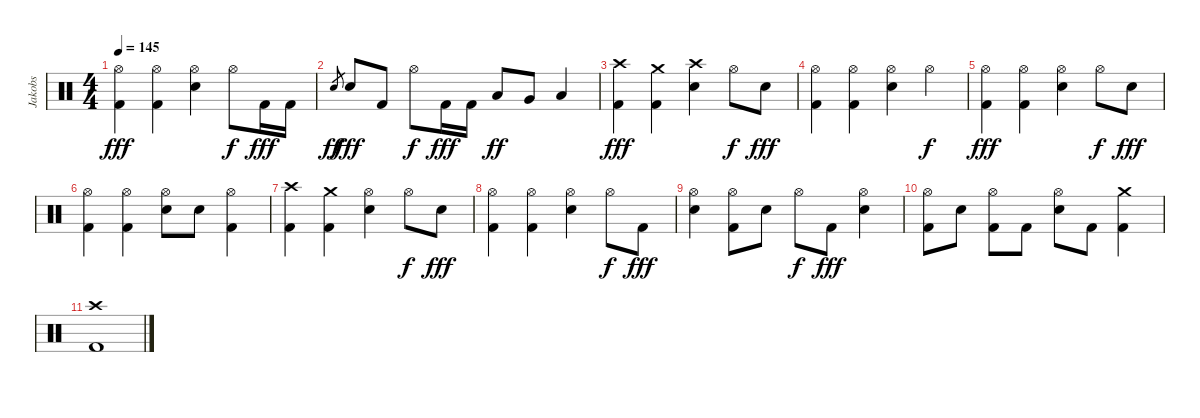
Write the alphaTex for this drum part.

\track ("Jakobs" "Jakobs") {instrument percussion}
\staff {score}
\articulation defaults
\ts (4 4)
\tempo 145
\clef neutral
\ks c
("Hi-Hat (open)" "Kick (hit) 2").4{dy fff} ("Hi-Hat (open)" "Kick (hit) 2").4 ("Hi-Hat (open)" "Snare (hit) 2").4 "Hi-Hat (open)".8{dy f} "Kick (hit) 2".16{dy fff} "Kick (hit) 2".16 |
"Snare (hit) 2".8{gr dy ff} "Snare (hit) 2".8{dy fff} "Kick (hit) 2".8 "Hi-Hat (open)".8{dy f} "Kick (hit) 2".16{dy fff} "Kick (hit) 2".16 "Low Tom (hit)".8{dy ff} "Very Low Tom (hit)".8 "Low Floor Tom (hit)".4 |
("Crash high (hit)" "Kick (hit) 2").4{dy fff} ("Crash medium (hit)" "Kick (hit) 2").4 ("Crash high (hit)" "Snare (hit) 2").4 "Hi-Hat (open)".8{dy f} "Snare (hit) 2".8{dy fff} |
("Hi-Hat (open)" "Kick (hit) 2").4 ("Hi-Hat (open)" "Kick (hit) 2").4 ("Hi-Hat (open)" "Snare (hit) 2").4 "Hi-Hat (open)".4{dy f} |
("Hi-Hat (open)" "Kick (hit) 2").4{dy fff} ("Hi-Hat (open)" "Kick (hit) 2").4 ("Hi-Hat (open)" "Snare (hit) 2").4 "Hi-Hat (open)".8{dy f} "Snare (hit) 2".8{dy fff} |
("Hi-Hat (open)" "Kick (hit) 2").4 ("Hi-Hat (open)" "Kick (hit) 2").4 ("Hi-Hat (open)" "Snare (hit) 2").8 "Snare (hit) 2".8 ("Hi-Hat (open)" "Kick (hit) 2").4 |
("Crash high (hit)" "Kick (hit) 2").4 ("Crash medium (hit)" "Kick (hit) 2").4 ("Hi-Hat (open)" "Snare (hit) 2").4 "Hi-Hat (open)".8{dy f} "Snare (hit) 2".8{dy fff} |
("Hi-Hat (open)" "Kick (hit) 2").4 ("Hi-Hat (open)" "Kick (hit) 2").4 ("Hi-Hat (open)" "Snare (hit) 2").4 "Hi-Hat (open)".8{dy f} "Kick (hit) 2".8{dy fff} |
("Hi-Hat (open)" "Snare (hit) 2").4 ("Hi-Hat (open)" "Kick (hit) 2").8 "Snare (hit) 2".8 "Hi-Hat (open)".8{dy f} "Kick (hit) 2".8{dy fff} ("Hi-Hat (open)" "Snare (hit) 2").4 |
("Hi-Hat (open)" "Kick (hit) 2").8 "Snare (hit) 2".8 ("Hi-Hat (open)" "Kick (hit) 2").8 "Kick (hit) 2".8 ("Hi-Hat (open)" "Snare (hit) 2").8 "Kick (hit) 2".8 ("Crash medium (hit)" "Kick (hit) 2").4 |
("Crash high (hit)" "Kick (hit) 2").1
